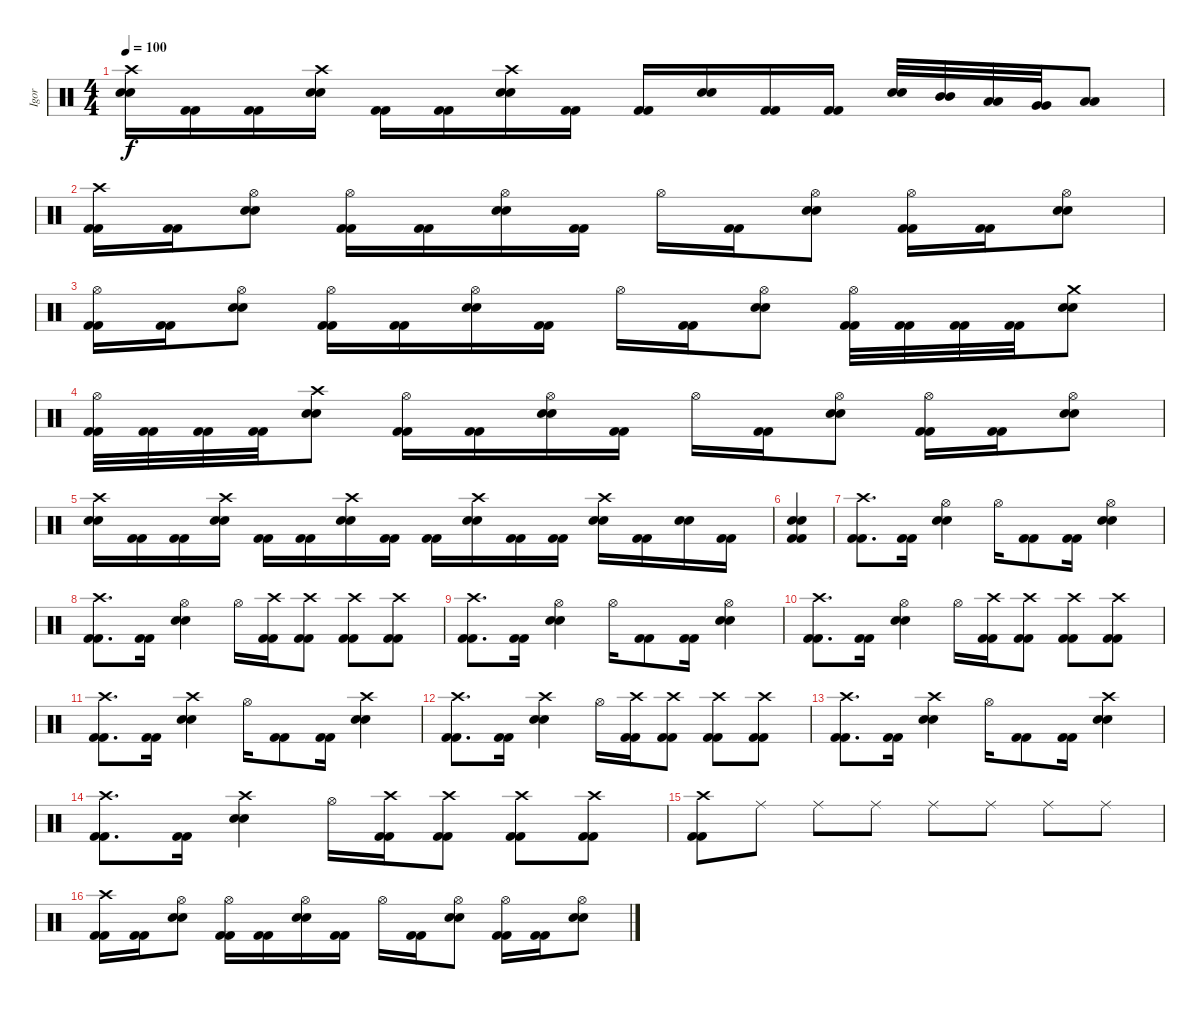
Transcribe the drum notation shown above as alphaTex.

\track ("Igor" "Igor") {instrument percussion}
\staff {score}
\articulation defaults
\ts (4 4)
\tempo 100
\clef neutral
\ks c
("Crash high (hit)" "Electric Snare (hit)" "Electric Snare (hit)").16{dy f} ("Kick (hit) 2" "Kick (hit) 2").16 ("Kick (hit) 2" "Kick (hit) 2").16 ("Crash high (hit)" "Electric Snare (hit)" "Electric Snare (hit)").16 ("Kick (hit) 2" "Kick (hit) 2").16 ("Kick (hit) 2" "Kick (hit) 2").16 ("Crash high (hit)" "Electric Snare (hit)" "Electric Snare (hit)").16 ("Kick (hit) 2" "Kick (hit) 2").16 ("Kick (hit) 2" "Kick (hit) 2").16 ("Electric Snare (hit)" "Electric Snare (hit)").16 ("Kick (hit) 2" "Kick (hit) 2").16 ("Kick (hit) 2" "Kick (hit) 2").16 ("Electric Snare (hit)" "Electric Snare (hit)").32 ("Mid Tom (hit)" "Mid Tom (hit)").32 ("Low Tom (hit)" "Low Tom (hit)").32 ("Very Low Tom (hit)" "Very Low Tom (hit)").32 ("Low Floor Tom (hit)" "Low Floor Tom (hit)").8 |
("Crash high (hit)" "Kick (hit) 2" "Kick (hit) 2").16 ("Kick (hit) 2" "Kick (hit) 2").16 ("Hi-Hat (open)" "Electric Snare (hit)" "Electric Snare (hit)").8 ("Hi-Hat (open)" "Kick (hit) 2" "Kick (hit) 2").16 ("Kick (hit) 2" "Kick (hit) 2").16 ("Hi-Hat (open)" "Electric Snare (hit)" "Electric Snare (hit)").16 ("Kick (hit) 2" "Kick (hit) 2").16 "Hi-Hat (open)".16 ("Kick (hit) 2" "Kick (hit) 2").16 ("Hi-Hat (open)" "Electric Snare (hit)" "Electric Snare (hit)").8 ("Hi-Hat (open)" "Kick (hit) 2" "Kick (hit) 2").16 ("Kick (hit) 2" "Kick (hit) 2").16 ("Hi-Hat (open)" "Electric Snare (hit)" "Electric Snare (hit)").8 |
("Hi-Hat (open)" "Kick (hit) 2" "Kick (hit) 2").16 ("Kick (hit) 2" "Kick (hit) 2").16 ("Hi-Hat (open)" "Electric Snare (hit)" "Electric Snare (hit)").8 ("Hi-Hat (open)" "Kick (hit) 2" "Kick (hit) 2").16 ("Kick (hit) 2" "Kick (hit) 2").16 ("Hi-Hat (open)" "Electric Snare (hit)" "Electric Snare (hit)").16 ("Kick (hit) 2" "Kick (hit) 2").16 "Hi-Hat (open)".16 ("Kick (hit) 2" "Kick (hit) 2").16 ("Hi-Hat (open)" "Electric Snare (hit)" "Electric Snare (hit)").8 ("Hi-Hat (open)" "Kick (hit) 2" "Kick (hit) 2").32 ("Kick (hit) 2" "Kick (hit) 2").32 ("Kick (hit) 2" "Kick (hit) 2").32 ("Kick (hit) 2" "Kick (hit) 2").32 ("Crash medium (hit)" "Electric Snare (hit)" "Electric Snare (hit)").8 |
("Hi-Hat (open)" "Kick (hit) 2" "Kick (hit) 2").32 ("Kick (hit) 2" "Kick (hit) 2").32 ("Kick (hit) 2" "Kick (hit) 2").32 ("Kick (hit) 2" "Kick (hit) 2").32 ("Crash high (hit)" "Electric Snare (hit)" "Electric Snare (hit)").8 ("Hi-Hat (open)" "Kick (hit) 2" "Kick (hit) 2").16 ("Kick (hit) 2" "Kick (hit) 2").16 ("Hi-Hat (open)" "Electric Snare (hit)" "Electric Snare (hit)").16 ("Kick (hit) 2" "Kick (hit) 2").16 "Hi-Hat (open)".16 ("Kick (hit) 2" "Kick (hit) 2").16 ("Hi-Hat (open)" "Electric Snare (hit)" "Electric Snare (hit)").8 ("Hi-Hat (open)" "Kick (hit) 2" "Kick (hit) 2").16 ("Kick (hit) 2" "Kick (hit) 2").16 ("Hi-Hat (open)" "Electric Snare (hit)" "Electric Snare (hit)").8 |
("Crash high (hit)" "Electric Snare (hit)" "Electric Snare (hit)").16 ("Kick (hit) 2" "Kick (hit) 2").16 ("Kick (hit) 2" "Kick (hit) 2").16 ("Crash high (hit)" "Electric Snare (hit)" "Electric Snare (hit)").16 ("Kick (hit) 2" "Kick (hit) 2").16 ("Kick (hit) 2" "Kick (hit) 2").16 ("Crash high (hit)" "Electric Snare (hit)" "Electric Snare (hit)").16 ("Kick (hit) 2" "Kick (hit) 2").16 ("Kick (hit) 2" "Kick (hit) 2").16 ("Crash high (hit)" "Electric Snare (hit)" "Electric Snare (hit)").16 ("Kick (hit) 2" "Kick (hit) 2").16 ("Kick (hit) 2" "Kick (hit) 2").16 ("Crash high (hit)" "Electric Snare (hit)" "Electric Snare (hit)").16 ("Kick (hit) 2" "Kick (hit) 2").16 ("Electric Snare (hit)" "Electric Snare (hit)").16 ("Kick (hit) 2" "Kick (hit) 2").16 |
("Electric Snare (hit)" "Electric Snare (hit)" "Kick (hit) 2" "Kick (hit) 2").4 |
("Crash high (hit)" "Kick (hit) 2" "Kick (hit) 2").8{d} ("Kick (hit) 2" "Kick (hit) 2").16 ("Hi-Hat (open)" "Electric Snare (hit)" "Electric Snare (hit)").4 "Hi-Hat (open)".16 ("Kick (hit) 2" "Kick (hit) 2").8 ("Kick (hit) 2" "Kick (hit) 2").16 ("Hi-Hat (open)" "Electric Snare (hit)" "Electric Snare (hit)").4 |
("Crash high (hit)" "Kick (hit) 2" "Kick (hit) 2").8{d} ("Kick (hit) 2" "Kick (hit) 2").16 ("Hi-Hat (open)" "Electric Snare (hit)" "Electric Snare (hit)").4 "Hi-Hat (open)".16 ("Crash high (hit)" "Kick (hit) 2" "Kick (hit) 2").16 ("Crash high (hit)" "Kick (hit) 2" "Kick (hit) 2").8 ("Crash high (hit)" "Kick (hit) 2" "Kick (hit) 2").8 ("Crash high (hit)" "Kick (hit) 2" "Kick (hit) 2").8 |
("Crash high (hit)" "Kick (hit) 2" "Kick (hit) 2").8{d} ("Kick (hit) 2" "Kick (hit) 2").16 ("Hi-Hat (open)" "Electric Snare (hit)" "Electric Snare (hit)").4 "Hi-Hat (open)".16 ("Kick (hit) 2" "Kick (hit) 2").8 ("Kick (hit) 2" "Kick (hit) 2").16 ("Hi-Hat (open)" "Electric Snare (hit)" "Electric Snare (hit)").4 |
("Crash high (hit)" "Kick (hit) 2" "Kick (hit) 2").8{d} ("Kick (hit) 2" "Kick (hit) 2").16 ("Hi-Hat (open)" "Electric Snare (hit)" "Electric Snare (hit)").4 "Hi-Hat (open)".16 ("Crash high (hit)" "Kick (hit) 2" "Kick (hit) 2").16 ("Crash high (hit)" "Kick (hit) 2" "Kick (hit) 2").8 ("Crash high (hit)" "Kick (hit) 2" "Kick (hit) 2").8 ("Crash high (hit)" "Kick (hit) 2" "Kick (hit) 2").8 |
("Crash high (hit)" "Kick (hit) 2" "Kick (hit) 2").8{d} ("Kick (hit) 2" "Kick (hit) 2").16 ("Crash high (hit)" "Electric Snare (hit)" "Electric Snare (hit)").4 "Hi-Hat (open)".16 ("Kick (hit) 2" "Kick (hit) 2").8 ("Kick (hit) 2" "Kick (hit) 2").16 ("Crash high (hit)" "Electric Snare (hit)" "Electric Snare (hit)").4 |
("Crash high (hit)" "Kick (hit) 2" "Kick (hit) 2").8{d} ("Kick (hit) 2" "Kick (hit) 2").16 ("Crash high (hit)" "Electric Snare (hit)" "Electric Snare (hit)").4 "Hi-Hat (open)".16 ("Crash high (hit)" "Kick (hit) 2" "Kick (hit) 2").16 ("Crash high (hit)" "Kick (hit) 2" "Kick (hit) 2").8 ("Crash high (hit)" "Kick (hit) 2" "Kick (hit) 2").8 ("Crash high (hit)" "Kick (hit) 2" "Kick (hit) 2").8 |
("Crash high (hit)" "Kick (hit) 2" "Kick (hit) 2").8{d} ("Kick (hit) 2" "Kick (hit) 2").16 ("Crash high (hit)" "Electric Snare (hit)" "Electric Snare (hit)").4 "Hi-Hat (open)".16 ("Kick (hit) 2" "Kick (hit) 2").8 ("Kick (hit) 2" "Kick (hit) 2").16 ("Crash high (hit)" "Electric Snare (hit)" "Electric Snare (hit)").4 |
("Crash high (hit)" "Kick (hit) 2" "Kick (hit) 2").8{d} ("Kick (hit) 2" "Kick (hit) 2").16 ("Crash high (hit)" "Electric Snare (hit)" "Electric Snare (hit)").4 "Hi-Hat (open)".16 ("Crash high (hit)" "Kick (hit) 2" "Kick (hit) 2").16 ("Crash high (hit)" "Kick (hit) 2" "Kick (hit) 2").8 ("Crash high (hit)" "Kick (hit) 2" "Kick (hit) 2").8 ("Crash high (hit)" "Kick (hit) 2" "Kick (hit) 2").8 |
("Crash high (hit)" "Kick (hit) 2" "Kick (hit) 2").8 "Ride (middle)".8 "Ride (middle)".8 "Ride (middle)".8 "Ride (middle)".8 "Ride (middle)".8 "Ride (middle)".8 "Ride (middle)".8 |
("Crash high (hit)" "Kick (hit) 2" "Kick (hit) 2").16 ("Kick (hit) 2" "Kick (hit) 2").16 ("Hi-Hat (open)" "Electric Snare (hit)" "Electric Snare (hit)").8 ("Hi-Hat (open)" "Kick (hit) 2" "Kick (hit) 2").16 ("Kick (hit) 2" "Kick (hit) 2").16 ("Hi-Hat (open)" "Electric Snare (hit)" "Electric Snare (hit)").16 ("Kick (hit) 2" "Kick (hit) 2").16 "Hi-Hat (open)".16 ("Kick (hit) 2" "Kick (hit) 2").16 ("Hi-Hat (open)" "Electric Snare (hit)" "Electric Snare (hit)").8 ("Hi-Hat (open)" "Kick (hit) 2" "Kick (hit) 2").16 ("Kick (hit) 2" "Kick (hit) 2").16 ("Hi-Hat (open)" "Electric Snare (hit)" "Electric Snare (hit)").8
